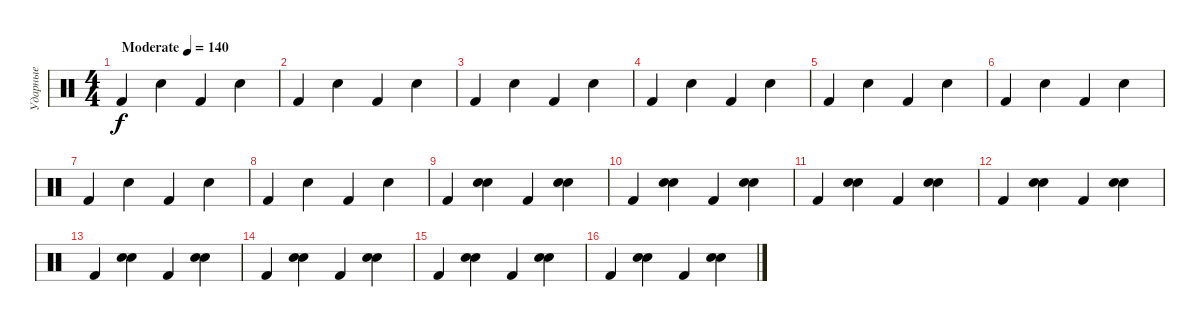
\track ("Ударные" "Ударные") {instrument percussion}
\staff {score}
\articulation defaults
\ts (4 4)
\tempo (140 "Moderate")
\clef neutral
\ks c "Kick (hit) 2".4{dy f} "Electric Snare (hit)".4 "Kick (hit) 2".4 "Electric Snare (hit)".4
|
"Kick (hit) 2".4 "Electric Snare (hit)".4 "Kick (hit) 2".4 "Electric Snare (hit)".4 |
"Kick (hit) 2".4 "Electric Snare (hit)".4 "Kick (hit) 2".4 "Electric Snare (hit)".4 |
"Kick (hit) 2".4 "Electric Snare (hit)".4 "Kick (hit) 2".4 "Electric Snare (hit)".4 |
"Kick (hit) 2".4 "Electric Snare (hit)".4 "Kick (hit) 2".4 "Electric Snare (hit)".4 |
"Kick (hit) 2".4 "Electric Snare (hit)".4 "Kick (hit) 2".4 "Electric Snare (hit)".4 |
"Kick (hit) 2".4 "Electric Snare (hit)".4 "Kick (hit) 2".4 "Electric Snare (hit)".4 |
"Kick (hit) 2".4 "Electric Snare (hit)".4 "Kick (hit) 2".4 "Electric Snare (hit)".4 |
"Kick (hit) 2".4 ("Hand Clap (hit)" "Electric Snare (hit)").4 "Kick (hit) 2".4 ("Hand Clap (hit)" "Electric Snare (hit)").4 |
"Kick (hit) 2".4 ("Hand Clap (hit)" "Electric Snare (hit)").4 "Kick (hit) 2".4 ("Hand Clap (hit)" "Electric Snare (hit)").4 |
"Kick (hit) 2".4 ("Hand Clap (hit)" "Electric Snare (hit)").4 "Kick (hit) 2".4 ("Hand Clap (hit)" "Electric Snare (hit)").4 |
"Kick (hit) 2".4 ("Hand Clap (hit)" "Electric Snare (hit)").4 "Kick (hit) 2".4 ("Hand Clap (hit)" "Electric Snare (hit)").4 |
"Kick (hit) 2".4 ("Hand Clap (hit)" "Electric Snare (hit)").4 "Kick (hit) 2".4 ("Hand Clap (hit)" "Electric Snare (hit)").4 |
"Kick (hit) 2".4 ("Hand Clap (hit)" "Electric Snare (hit)").4 "Kick (hit) 2".4 ("Hand Clap (hit)" "Electric Snare (hit)").4 |
"Kick (hit) 2".4 ("Hand Clap (hit)" "Electric Snare (hit)").4 "Kick (hit) 2".4 ("Hand Clap (hit)" "Electric Snare (hit)").4 |
"Kick (hit) 2".4 ("Hand Clap (hit)" "Electric Snare (hit)").4 "Kick (hit) 2".4 ("Hand Clap (hit)" "Electric Snare (hit)").4
